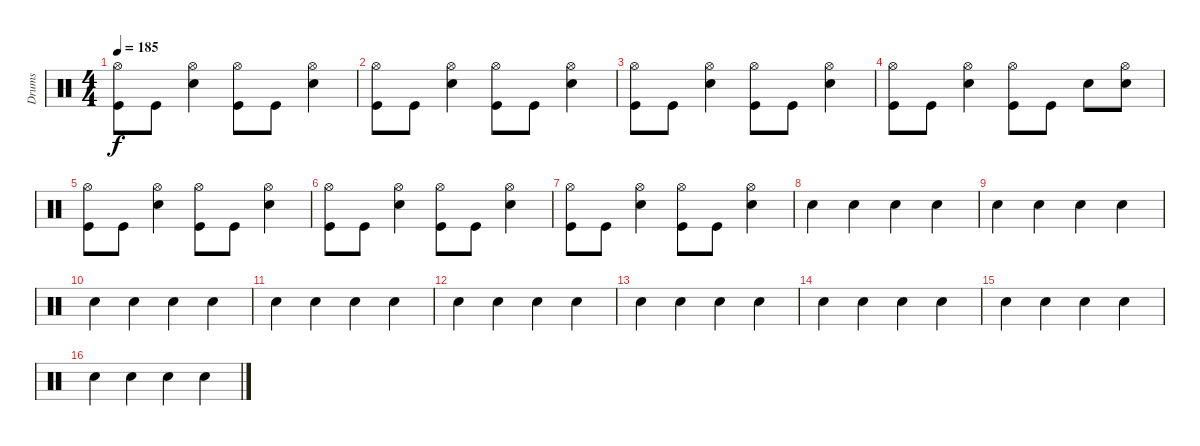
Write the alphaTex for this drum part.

\track ("Drums" "Drums") {instrument percussion}
\staff {score}
\articulation defaults
\ts (4 4)
\tempo 185
\clef neutral
\ks c
("Kick (hit)" "Hi-Hat (open)").8{dy f} "Kick (hit)".8 ("Electric Snare (hit)" "Hi-Hat (open)").4 ("Kick (hit)" "Hi-Hat (open)").8 "Kick (hit)".8 ("Electric Snare (hit)" "Hi-Hat (open)").4 |
("Kick (hit)" "Hi-Hat (open)").8 "Kick (hit)".8 ("Electric Snare (hit)" "Hi-Hat (open)").4 ("Kick (hit)" "Hi-Hat (open)").8 "Kick (hit)".8 ("Electric Snare (hit)" "Hi-Hat (open)").4 |
("Kick (hit)" "Hi-Hat (open)").8 "Kick (hit)".8 ("Electric Snare (hit)" "Hi-Hat (open)").4 ("Kick (hit)" "Hi-Hat (open)").8 "Kick (hit)".8 ("Electric Snare (hit)" "Hi-Hat (open)").4 |
("Kick (hit)" "Hi-Hat (open)").8 "Kick (hit)".8 ("Electric Snare (hit)" "Hi-Hat (open)").4 ("Kick (hit)" "Hi-Hat (open)").8 "Kick (hit)".8 "Electric Snare (hit)".8 ("Electric Snare (hit)" "Hi-Hat (open)").8 |
("Kick (hit)" "Hi-Hat (open)").8 "Kick (hit)".8 ("Electric Snare (hit)" "Hi-Hat (open)").4 ("Kick (hit)" "Hi-Hat (open)").8 "Kick (hit)".8 ("Electric Snare (hit)" "Hi-Hat (open)").4 |
("Kick (hit)" "Hi-Hat (open)").8 "Kick (hit)".8 ("Electric Snare (hit)" "Hi-Hat (open)").4 ("Kick (hit)" "Hi-Hat (open)").8 "Kick (hit)".8 ("Electric Snare (hit)" "Hi-Hat (open)").4 |
("Kick (hit)" "Hi-Hat (open)").8 "Kick (hit)".8 ("Electric Snare (hit)" "Hi-Hat (open)").4 ("Kick (hit)" "Hi-Hat (open)").8 "Kick (hit)".8 ("Electric Snare (hit)" "Hi-Hat (open)").4 |
"Electric Snare (hit)".4 "Electric Snare (hit)".4 "Electric Snare (hit)".4 "Electric Snare (hit)".4 |
"Electric Snare (hit)".4 "Electric Snare (hit)".4 "Electric Snare (hit)".4 "Electric Snare (hit)".4 |
"Electric Snare (hit)".4 "Electric Snare (hit)".4 "Electric Snare (hit)".4 "Electric Snare (hit)".4 |
"Electric Snare (hit)".4 "Electric Snare (hit)".4 "Electric Snare (hit)".4 "Electric Snare (hit)".4 |
"Electric Snare (hit)".4 "Electric Snare (hit)".4 "Electric Snare (hit)".4 "Electric Snare (hit)".4 |
"Electric Snare (hit)".4 "Electric Snare (hit)".4 "Electric Snare (hit)".4 "Electric Snare (hit)".4 |
"Electric Snare (hit)".4 "Electric Snare (hit)".4 "Electric Snare (hit)".4 "Electric Snare (hit)".4 |
"Electric Snare (hit)".4 "Electric Snare (hit)".4 "Electric Snare (hit)".4 "Electric Snare (hit)".4 |
"Electric Snare (hit)".4 "Electric Snare (hit)".4 "Electric Snare (hit)".4 "Electric Snare (hit)".4
